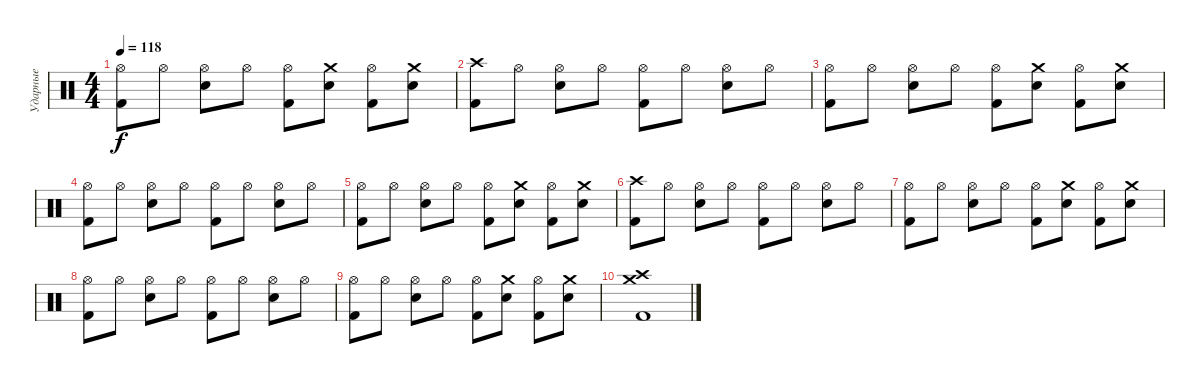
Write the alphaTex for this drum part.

\track ("Ударные" "Ударные") {instrument percussion}
\staff {score}
\articulation defaults
\ts (4 4)
\tempo 118
\clef neutral
\ks c
("Hi-Hat (open)" "Kick (hit) 2").8{dy f} "Hi-Hat (open)".8 ("Hi-Hat (open)" "Snare (hit) 2").8 "Hi-Hat (open)".8 ("Hi-Hat (open)" "Kick (hit) 2").8 ("Crash medium (hit)" "Snare (hit) 2").8 ("Hi-Hat (open)" "Kick (hit) 2").8 ("Crash medium (hit)" "Snare (hit) 2").8 |
("Crash high (hit)" "Kick (hit) 2").8 "Hi-Hat (open)".8 ("Hi-Hat (open)" "Snare (hit) 2").8 "Hi-Hat (open)".8 ("Hi-Hat (open)" "Kick (hit) 2").8 "Hi-Hat (open)".8 ("Hi-Hat (open)" "Snare (hit) 2").8 "Hi-Hat (open)".8 |
("Hi-Hat (open)" "Kick (hit) 2").8 "Hi-Hat (open)".8 ("Hi-Hat (open)" "Snare (hit) 2").8 "Hi-Hat (open)".8 ("Hi-Hat (open)" "Kick (hit) 2").8 ("Crash medium (hit)" "Snare (hit) 2").8 ("Hi-Hat (open)" "Kick (hit) 2").8 ("Crash medium (hit)" "Snare (hit) 2").8 |
("Hi-Hat (open)" "Kick (hit) 2").8 "Hi-Hat (open)".8 ("Hi-Hat (open)" "Snare (hit) 2").8 "Hi-Hat (open)".8 ("Hi-Hat (open)" "Kick (hit) 2").8 "Hi-Hat (open)".8 ("Hi-Hat (open)" "Snare (hit) 2").8 "Hi-Hat (open)".8 |
("Hi-Hat (open)" "Kick (hit) 2").8 "Hi-Hat (open)".8 ("Hi-Hat (open)" "Snare (hit) 2").8 "Hi-Hat (open)".8 ("Hi-Hat (open)" "Kick (hit) 2").8 ("Crash medium (hit)" "Snare (hit) 2").8 ("Hi-Hat (open)" "Kick (hit) 2").8 ("Crash medium (hit)" "Snare (hit) 2").8 |
("Crash high (hit)" "Kick (hit) 2").8 "Hi-Hat (open)".8 ("Hi-Hat (open)" "Snare (hit) 2").8 "Hi-Hat (open)".8 ("Hi-Hat (open)" "Kick (hit) 2").8 "Hi-Hat (open)".8 ("Hi-Hat (open)" "Snare (hit) 2").8 "Hi-Hat (open)".8 |
("Hi-Hat (open)" "Kick (hit) 2").8 "Hi-Hat (open)".8 ("Hi-Hat (open)" "Snare (hit) 2").8 "Hi-Hat (open)".8 ("Hi-Hat (open)" "Kick (hit) 2").8 ("Crash medium (hit)" "Snare (hit) 2").8 ("Hi-Hat (open)" "Kick (hit) 2").8 ("Crash medium (hit)" "Snare (hit) 2").8 |
("Hi-Hat (open)" "Kick (hit) 2").8 "Hi-Hat (open)".8 ("Hi-Hat (open)" "Snare (hit) 2").8 "Hi-Hat (open)".8 ("Hi-Hat (open)" "Kick (hit) 2").8 "Hi-Hat (open)".8 ("Hi-Hat (open)" "Snare (hit) 2").8 "Hi-Hat (open)".8 |
("Hi-Hat (open)" "Kick (hit) 2").8 "Hi-Hat (open)".8 ("Hi-Hat (open)" "Snare (hit) 2").8 "Hi-Hat (open)".8 ("Hi-Hat (open)" "Kick (hit) 2").8 ("Crash medium (hit)" "Snare (hit) 2").8 ("Hi-Hat (open)" "Kick (hit) 2").8 ("Crash medium (hit)" "Snare (hit) 2").8 |
("Crash medium (hit)" "Crash high (hit)" "Kick (hit) 2").1
